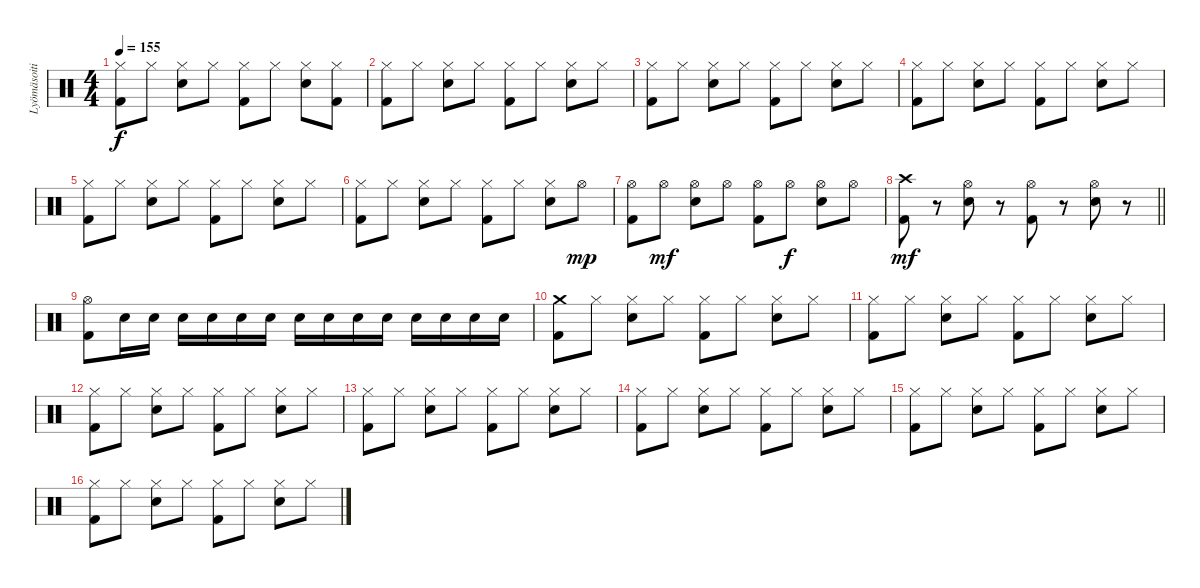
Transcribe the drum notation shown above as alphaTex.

\track ("Lyömäsoitin" "Lyömäsoiti") {instrument percussion}
\staff {score}
\articulation defaults
\ts (4 4)
\tempo 155
\clef neutral
\ks c
("Hi-Hat (closed)" "Kick (hit) 2").8{dy f} "Hi-Hat (closed)".8 ("Hi-Hat (closed)" "Snare (hit) 2").8 "Hi-Hat (closed)".8 ("Hi-Hat (closed)" "Kick (hit) 2").8 "Hi-Hat (closed)".8 ("Hi-Hat (closed)" "Snare (hit) 2").8 ("Hi-Hat (closed)" "Kick (hit) 2").8 |
("Hi-Hat (closed)" "Kick (hit) 2").8 "Hi-Hat (closed)".8 ("Hi-Hat (closed)" "Snare (hit) 2").8 "Hi-Hat (closed)".8 ("Hi-Hat (closed)" "Kick (hit) 2").8 "Hi-Hat (closed)".8 ("Hi-Hat (closed)" "Snare (hit) 2").8 "Hi-Hat (closed)".8 |
("Hi-Hat (closed)" "Kick (hit) 2").8 "Hi-Hat (closed)".8 ("Hi-Hat (closed)" "Snare (hit) 2").8 "Hi-Hat (closed)".8 ("Hi-Hat (closed)" "Kick (hit) 2").8 "Hi-Hat (closed)".8 ("Hi-Hat (closed)" "Snare (hit) 2").8 "Hi-Hat (closed)".8 |
("Hi-Hat (closed)" "Kick (hit) 2").8 "Hi-Hat (closed)".8 ("Hi-Hat (closed)" "Snare (hit) 2").8 "Hi-Hat (closed)".8 ("Hi-Hat (closed)" "Kick (hit) 2").8 "Hi-Hat (closed)".8 ("Hi-Hat (closed)" "Snare (hit) 2").8 "Hi-Hat (closed)".8 |
("Hi-Hat (closed)" "Kick (hit) 2").8 "Hi-Hat (closed)".8 ("Hi-Hat (closed)" "Snare (hit) 2").8 "Hi-Hat (closed)".8 ("Hi-Hat (closed)" "Kick (hit) 2").8 "Hi-Hat (closed)".8 ("Hi-Hat (closed)" "Snare (hit) 2").8 "Hi-Hat (closed)".8 |
("Hi-Hat (closed)" "Kick (hit) 2").8 "Hi-Hat (closed)".8 ("Hi-Hat (closed)" "Snare (hit) 2").8 "Hi-Hat (closed)".8 ("Hi-Hat (closed)" "Kick (hit) 2").8 "Hi-Hat (closed)".8 ("Hi-Hat (closed)" "Snare (hit) 2").8 "Hi-Hat (open)".8{dy mp} |
("Hi-Hat (open)" "Kick (hit) 2").8 "Hi-Hat (open)".8{dy mf} ("Hi-Hat (open)" "Snare (hit) 2").8 "Hi-Hat (open)".8 ("Hi-Hat (open)" "Kick (hit) 2").8 "Hi-Hat (open)".8{dy f} ("Hi-Hat (open)" "Snare (hit) 2").8 "Hi-Hat (open)".8 |
\barLineRight lightlight
("Crash high (hit)" "Kick (hit) 2").8{dy mf} r.8 ("Hi-Hat (open)" "Snare (hit) 2").8 r.8 ("Hi-Hat (open)" "Kick (hit) 2").8 r.8 ("Hi-Hat (open)" "Snare (hit) 2").8 r.8 |
("Hi-Hat (open)" "Kick (hit) 2").8 "Snare (hit) 2".16 "Snare (hit) 2".16 "Snare (hit) 2".16 "Snare (hit) 2".16 "Snare (hit) 2".16 "Snare (hit) 2".16 "Snare (hit) 2".16 "Snare (hit) 2".16 "Snare (hit) 2".16 "Snare (hit) 2".16 "Snare (hit) 2".16 "Snare (hit) 2".16 "Snare (hit) 2".16 "Snare (hit) 2".16 |
("Crash medium (hit)" "Kick (hit) 2").8 "Hi-Hat (closed)".8 ("Hi-Hat (closed)" "Snare (hit) 2").8 "Hi-Hat (closed)".8 ("Hi-Hat (closed)" "Kick (hit) 2").8 "Hi-Hat (closed)".8 ("Hi-Hat (closed)" "Snare (hit) 2").8 "Hi-Hat (closed)".8 |
("Hi-Hat (closed)" "Kick (hit) 2").8 "Hi-Hat (closed)".8 ("Hi-Hat (closed)" "Snare (hit) 2").8 "Hi-Hat (closed)".8 ("Hi-Hat (closed)" "Kick (hit) 2").8 "Hi-Hat (closed)".8 ("Hi-Hat (closed)" "Snare (hit) 2").8 "Hi-Hat (closed)".8 |
("Hi-Hat (closed)" "Kick (hit) 2").8 "Hi-Hat (closed)".8 ("Hi-Hat (closed)" "Snare (hit) 2").8 "Hi-Hat (closed)".8 ("Hi-Hat (closed)" "Kick (hit) 2").8 "Hi-Hat (closed)".8 ("Hi-Hat (closed)" "Snare (hit) 2").8 "Hi-Hat (closed)".8 |
("Hi-Hat (closed)" "Kick (hit) 2").8 "Hi-Hat (closed)".8 ("Hi-Hat (closed)" "Snare (hit) 2").8 "Hi-Hat (closed)".8 ("Hi-Hat (closed)" "Kick (hit) 2").8 "Hi-Hat (closed)".8 ("Hi-Hat (closed)" "Snare (hit) 2").8 "Hi-Hat (closed)".8 |
("Hi-Hat (closed)" "Kick (hit) 2").8 "Hi-Hat (closed)".8 ("Hi-Hat (closed)" "Snare (hit) 2").8 "Hi-Hat (closed)".8 ("Hi-Hat (closed)" "Kick (hit) 2").8 "Hi-Hat (closed)".8 ("Hi-Hat (closed)" "Snare (hit) 2").8 "Hi-Hat (closed)".8 |
("Hi-Hat (closed)" "Kick (hit) 2").8 "Hi-Hat (closed)".8 ("Hi-Hat (closed)" "Snare (hit) 2").8 "Hi-Hat (closed)".8 ("Hi-Hat (closed)" "Kick (hit) 2").8 "Hi-Hat (closed)".8 ("Hi-Hat (closed)" "Snare (hit) 2").8 "Hi-Hat (closed)".8 |
("Hi-Hat (closed)" "Kick (hit) 2").8 "Hi-Hat (closed)".8 ("Hi-Hat (closed)" "Snare (hit) 2").8 "Hi-Hat (closed)".8 ("Hi-Hat (closed)" "Kick (hit) 2").8 "Hi-Hat (closed)".8 ("Hi-Hat (closed)" "Snare (hit) 2").8 "Hi-Hat (closed)".8
